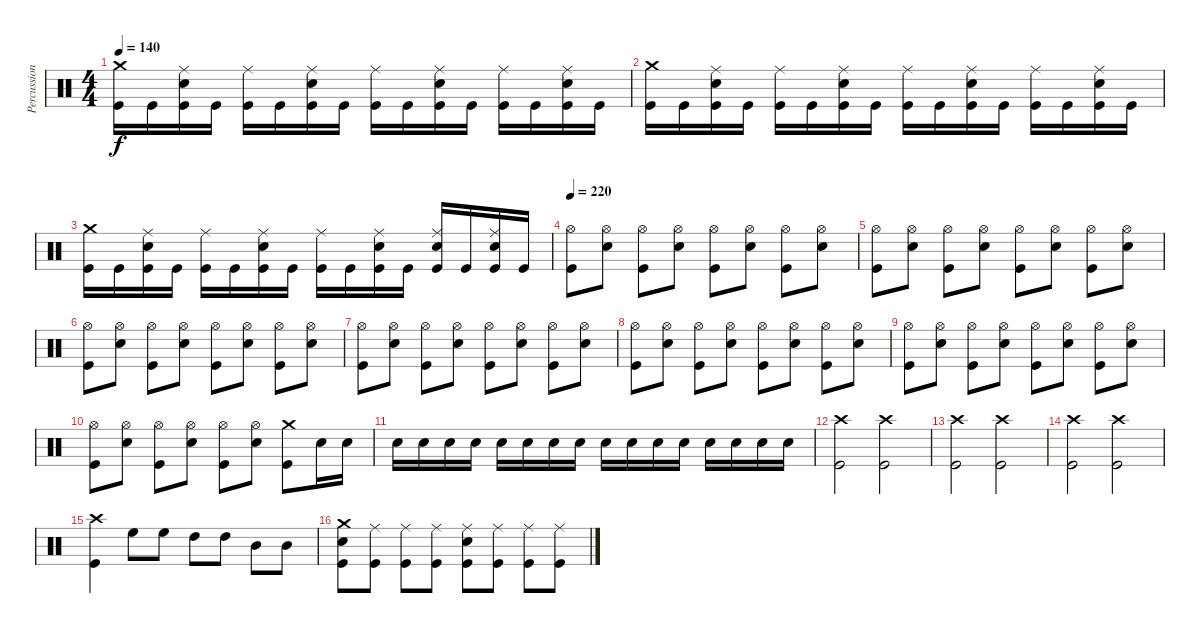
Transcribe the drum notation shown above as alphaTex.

\track ("Percussion" "Percussion") {instrument percussion}
\staff {score}
\articulation defaults
\ts (4 4)
\tempo 140
\clef neutral
\ks c
("Crash medium (hit)" "Kick (hit)").16{dy f} "Kick (hit)".16 ("Ride (middle)" "Snare (hit) 2" "Kick (hit)").16 "Kick (hit)".16 ("Ride (middle)" "Kick (hit)").16 "Kick (hit)".16 ("Ride (middle)" "Snare (hit) 2" "Kick (hit)").16 "Kick (hit)".16 ("Ride (middle)" "Kick (hit)").16 "Kick (hit)".16 ("Ride (middle)" "Snare (hit) 2" "Kick (hit)").16 "Kick (hit)".16 ("Ride (middle)" "Kick (hit)").16 "Kick (hit)".16 ("Ride (middle)" "Snare (hit) 2" "Kick (hit)").16 "Kick (hit)".16 |
("Crash medium (hit)" "Kick (hit)").16 "Kick (hit)".16 ("Ride (middle)" "Snare (hit) 2" "Kick (hit)").16 "Kick (hit)".16 ("Ride (middle)" "Kick (hit)").16 "Kick (hit)".16 ("Ride (middle)" "Snare (hit) 2" "Kick (hit)").16 "Kick (hit)".16 ("Ride (middle)" "Kick (hit)").16 "Kick (hit)".16 ("Ride (middle)" "Snare (hit) 2" "Kick (hit)").16 "Kick (hit)".16 ("Ride (middle)" "Kick (hit)").16 "Kick (hit)".16 ("Ride (middle)" "Snare (hit) 2" "Kick (hit)").16 "Kick (hit)".16 |
("Crash medium (hit)" "Kick (hit)").16 "Kick (hit)".16 ("Ride (middle)" "Snare (hit) 2" "Kick (hit)").16 "Kick (hit)".16 ("Ride (middle)" "Kick (hit)").16 "Kick (hit)".16 ("Ride (middle)" "Snare (hit) 2" "Kick (hit)").16 "Kick (hit)".16 ("Ride (middle)" "Kick (hit)").16 "Kick (hit)".16 ("Ride (middle)" "Snare (hit) 2" "Kick (hit)").16 "Kick (hit)".16 ("Ride (middle)" "Snare (hit) 2" "Kick (hit)").16 "Kick (hit)".16 ("Ride (middle)" "Snare (hit) 2" "Kick (hit)").16 "Kick (hit)".16 |
\tempo 220
("Hi-Hat (open)" "Kick (hit)").8 ("Hi-Hat (open)" "Snare (hit) 2").8 ("Hi-Hat (open)" "Kick (hit)").8 ("Hi-Hat (open)" "Snare (hit) 2").8 ("Hi-Hat (open)" "Kick (hit)").8 ("Hi-Hat (open)" "Snare (hit) 2").8 ("Hi-Hat (open)" "Kick (hit)").8 ("Hi-Hat (open)" "Snare (hit) 2").8 |
("Hi-Hat (open)" "Kick (hit)").8 ("Hi-Hat (open)" "Snare (hit) 2").8 ("Hi-Hat (open)" "Kick (hit)").8 ("Hi-Hat (open)" "Snare (hit) 2").8 ("Hi-Hat (open)" "Kick (hit)").8 ("Hi-Hat (open)" "Snare (hit) 2").8 ("Hi-Hat (open)" "Kick (hit)").8 ("Hi-Hat (open)" "Snare (hit) 2").8 |
("Hi-Hat (open)" "Kick (hit)").8 ("Hi-Hat (open)" "Snare (hit) 2").8 ("Hi-Hat (open)" "Kick (hit)").8 ("Hi-Hat (open)" "Snare (hit) 2").8 ("Hi-Hat (open)" "Kick (hit)").8 ("Hi-Hat (open)" "Snare (hit) 2").8 ("Hi-Hat (open)" "Kick (hit)").8 ("Hi-Hat (open)" "Snare (hit) 2").8 |
("Hi-Hat (open)" "Kick (hit)").8 ("Hi-Hat (open)" "Snare (hit) 2").8 ("Hi-Hat (open)" "Kick (hit)").8 ("Hi-Hat (open)" "Snare (hit) 2").8 ("Hi-Hat (open)" "Kick (hit)").8 ("Hi-Hat (open)" "Snare (hit) 2").8 ("Hi-Hat (open)" "Kick (hit)").8 ("Hi-Hat (open)" "Snare (hit) 2").8 |
("Hi-Hat (open)" "Kick (hit)").8 ("Hi-Hat (open)" "Snare (hit) 2").8 ("Hi-Hat (open)" "Kick (hit)").8 ("Hi-Hat (open)" "Snare (hit) 2").8 ("Hi-Hat (open)" "Kick (hit)").8 ("Hi-Hat (open)" "Snare (hit) 2").8 ("Hi-Hat (open)" "Kick (hit)").8 ("Hi-Hat (open)" "Snare (hit) 2").8 |
("Hi-Hat (open)" "Kick (hit)").8 ("Hi-Hat (open)" "Snare (hit) 2").8 ("Hi-Hat (open)" "Kick (hit)").8 ("Hi-Hat (open)" "Snare (hit) 2").8 ("Hi-Hat (open)" "Kick (hit)").8 ("Hi-Hat (open)" "Snare (hit) 2").8 ("Hi-Hat (open)" "Kick (hit)").8 ("Hi-Hat (open)" "Snare (hit) 2").8 |
("Hi-Hat (open)" "Kick (hit)").8 ("Hi-Hat (open)" "Snare (hit) 2").8 ("Hi-Hat (open)" "Kick (hit)").8 ("Hi-Hat (open)" "Snare (hit) 2").8 ("Hi-Hat (open)" "Kick (hit)").8 ("Hi-Hat (open)" "Snare (hit) 2").8 ("Crash medium (hit)" "Kick (hit)").8 "Snare (hit) 2".16 "Snare (hit) 2".16 |
"Snare (hit) 2".16 "Snare (hit) 2".16 "Snare (hit) 2".16 "Snare (hit) 2".16 "Snare (hit) 2".16 "Snare (hit) 2".16 "Snare (hit) 2".16 "Snare (hit) 2".16 "Snare (hit) 2".16 "Snare (hit) 2".16 "Snare (hit) 2".16 "Snare (hit) 2".16 "Snare (hit) 2".16 "Snare (hit) 2".16 "Snare (hit) 2".16 "Snare (hit) 2".16 |
("Crash high (hit)" "Kick (hit)").2 ("Crash high (hit)" "Kick (hit)").2 |
("Crash high (hit)" "Kick (hit)").2 ("Crash high (hit)" "Kick (hit)").2 |
("Crash high (hit)" "Kick (hit)").2 ("Crash high (hit)" "Kick (hit)").2 |
("Crash high (hit)" "Kick (hit)").4 "High Floor Tom (hit)".8 "High Floor Tom (hit)".8 "High Tom (hit)".8 "High Tom (hit)".8 "Mid Tom (hit)".8 "Mid Tom (hit)".8 |
("Crash medium (hit)" "Snare (hit) 2" "Kick (hit)").8 ("Ride (middle)" "Kick (hit)").8 ("Ride (middle)" "Kick (hit)").8 ("Ride (middle)" "Kick (hit)").8 ("Ride (middle)" "Snare (hit) 2" "Kick (hit)").8 ("Ride (middle)" "Kick (hit)").8 ("Ride (middle)" "Kick (hit)").8 ("Ride (middle)" "Kick (hit)").8
